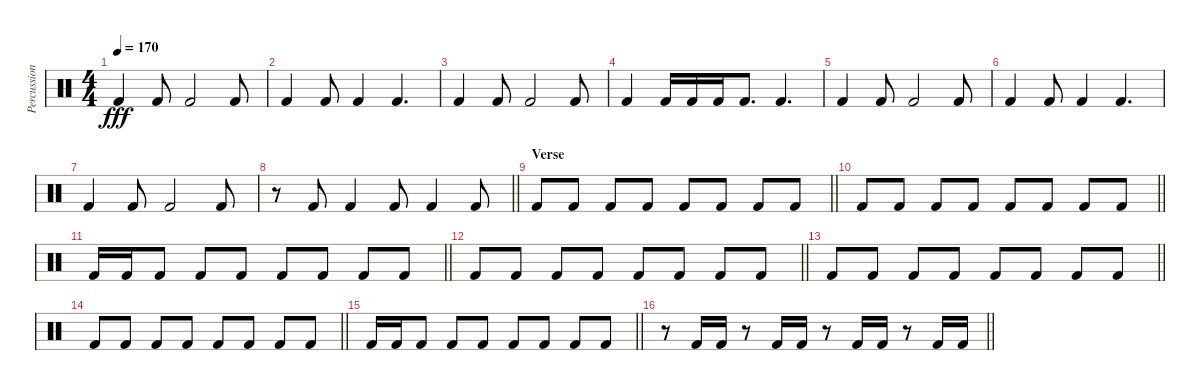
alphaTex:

\track ("Percussioni" "Percussion") {instrument percussion}
\staff
\articulation defaults
\ts (4 4)
\tempo 170
\clef neutral
\ks c "Kick (hit) 2".4{dy fff} "Kick (hit) 2".8 "Kick (hit) 2".2 "Kick (hit) 2".8
|
"Kick (hit) 2".4 "Kick (hit) 2".8 "Kick (hit) 2".4 "Kick (hit) 2".4{d} |
"Kick (hit) 2".4 "Kick (hit) 2".8 "Kick (hit) 2".2 "Kick (hit) 2".8 |
"Kick (hit) 2".4 "Kick (hit) 2".16 "Kick (hit) 2".16 "Kick (hit) 2".16 "Kick (hit) 2".8{d} "Kick (hit) 2".4{d} |
"Kick (hit) 2".4 "Kick (hit) 2".8 "Kick (hit) 2".2 "Kick (hit) 2".8 |
"Kick (hit) 2".4 "Kick (hit) 2".8 "Kick (hit) 2".4 "Kick (hit) 2".4{d} |
"Kick (hit) 2".4 "Kick (hit) 2".8 "Kick (hit) 2".2 "Kick (hit) 2".8 |
\barLineRight lightlight
r.8 "Kick (hit) 2".8 "Kick (hit) 2".4 "Kick (hit) 2".8 "Kick (hit) 2".4 "Kick (hit) 2".8 |
\section ("" "Verse")
\barLineRight lightlight "Kick (hit) 2".8 "Kick (hit) 2".8 "Kick (hit) 2".8 "Kick (hit) 2".8 "Kick (hit) 2".8 "Kick (hit) 2".8 "Kick (hit) 2".8 "Kick (hit) 2".8
|
\barLineRight lightlight "Kick (hit) 2".8 "Kick (hit) 2".8 "Kick (hit) 2".8 "Kick (hit) 2".8 "Kick (hit) 2".8 "Kick (hit) 2".8 "Kick (hit) 2".8 "Kick (hit) 2".8
|
\barLineRight lightlight "Kick (hit) 2".16 "Kick (hit) 2".16 "Kick (hit) 2".8 "Kick (hit) 2".8 "Kick (hit) 2".8 "Kick (hit) 2".8 "Kick (hit) 2".8 "Kick (hit) 2".8 "Kick (hit) 2".8
|
\barLineRight lightlight "Kick (hit) 2".8 "Kick (hit) 2".8 "Kick (hit) 2".8 "Kick (hit) 2".8 "Kick (hit) 2".8 "Kick (hit) 2".8 "Kick (hit) 2".8 "Kick (hit) 2".8
|
\barLineRight lightlight "Kick (hit) 2".8 "Kick (hit) 2".8 "Kick (hit) 2".8 "Kick (hit) 2".8 "Kick (hit) 2".8 "Kick (hit) 2".8 "Kick (hit) 2".8 "Kick (hit) 2".8
|
\barLineRight lightlight "Kick (hit) 2".8 "Kick (hit) 2".8 "Kick (hit) 2".8 "Kick (hit) 2".8 "Kick (hit) 2".8 "Kick (hit) 2".8 "Kick (hit) 2".8 "Kick (hit) 2".8
|
\barLineRight lightlight "Kick (hit) 2".16 "Kick (hit) 2".16 "Kick (hit) 2".8 "Kick (hit) 2".8 "Kick (hit) 2".8 "Kick (hit) 2".8 "Kick (hit) 2".8 "Kick (hit) 2".8 "Kick (hit) 2".8
|
\barLineRight lightlight
r.8 "Kick (hit) 2".16 "Kick (hit) 2".16 r.8 "Kick (hit) 2".16 "Kick (hit) 2".16 r.8 "Kick (hit) 2".16 "Kick (hit) 2".16 r.8 "Kick (hit) 2".16 "Kick (hit) 2".16
